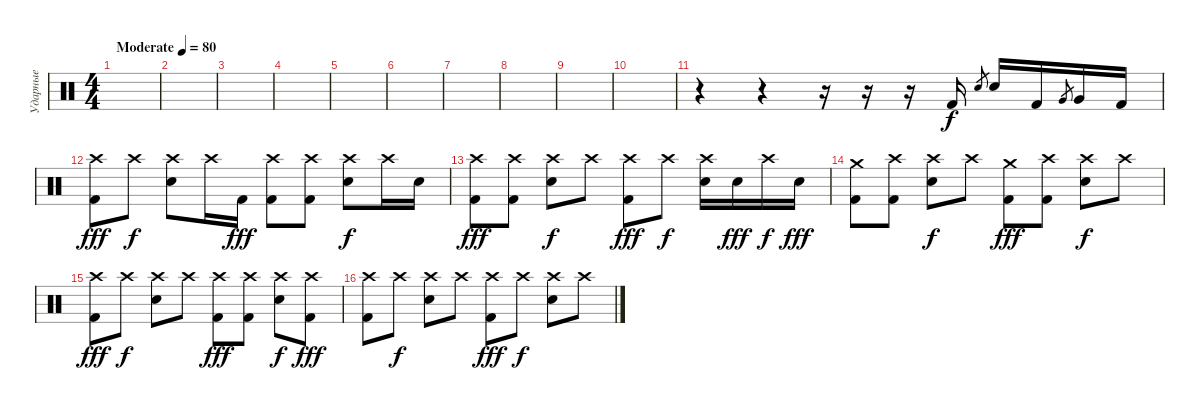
\track ("Ударные" "Ударные") {instrument percussion}
\staff {score}
\articulation defaults
\ts (4 4)
\tempo (80 "Moderate")
\clef neutral
\ks c
|
|
|
|
|
|
|
|
|
|
r.4 r.4 r.16 r.16 r.16 "Kick (hit) 2".16 "Electric Snare (hit)".8{gr} "Electric Snare (hit)".16 "Kick (hit) 2".16 "Very Low Tom (hit)".8{gr} "Very Low Tom (hit)".16 "Kick (hit) 2".16 |
("Crash high (hit)" "Kick (hit) 2").8{dy fff} "Crash high (hit)".8{dy f} ("Crash high (hit)" "Electric Snare (hit)").8 "Crash high (hit)".16 "Kick (hit) 2".16{dy fff} ("Crash high (hit)" "Kick (hit) 2").8 ("Crash high (hit)" "Kick (hit) 2").8 ("Crash high (hit)" "Electric Snare (hit)").8{dy f} "Crash high (hit)".16 "Electric Snare (hit)".16 |
("Crash high (hit)" "Kick (hit) 2").8{dy fff} ("Crash high (hit)" "Kick (hit) 2").8 ("Crash high (hit)" "Electric Snare (hit)").8{dy f} "Crash high (hit)".8 ("Crash high (hit)" "Kick (hit) 2").8{dy fff} "Crash high (hit)".8{dy f} ("Crash high (hit)" "Electric Snare (hit)").16 "Electric Snare (hit)".16{dy fff} "Crash high (hit)".16{dy f} "Electric Snare (hit)".16{dy fff} |
("Crash medium (hit)" "Kick (hit) 2").8 ("Crash high (hit)" "Kick (hit) 2").8 ("Crash high (hit)" "Electric Snare (hit)").8{dy f} "Crash high (hit)".8 ("Crash medium (hit)" "Kick (hit) 2").8{dy fff} ("Crash high (hit)" "Kick (hit) 2").8 ("Crash high (hit)" "Electric Snare (hit)").8{dy f} "Crash high (hit)".8 |
("Crash high (hit)" "Kick (hit) 2").8{dy fff} "Crash high (hit)".8{dy f} ("Crash high (hit)" "Electric Snare (hit)").8 "Crash high (hit)".8 ("Crash high (hit)" "Kick (hit) 2").8{dy fff} ("Crash high (hit)" "Kick (hit) 2").8 ("Crash high (hit)" "Electric Snare (hit)").8{dy f} ("Crash high (hit)" "Kick (hit) 2").8{dy fff} |
("Crash high (hit)" "Kick (hit) 2").8 "Crash high (hit)".8{dy f} ("Crash high (hit)" "Electric Snare (hit)").8 "Crash high (hit)".8 ("Crash high (hit)" "Kick (hit) 2").8{dy fff} "Crash high (hit)".8{dy f} ("Crash high (hit)" "Electric Snare (hit)").8 "Crash high (hit)".8
